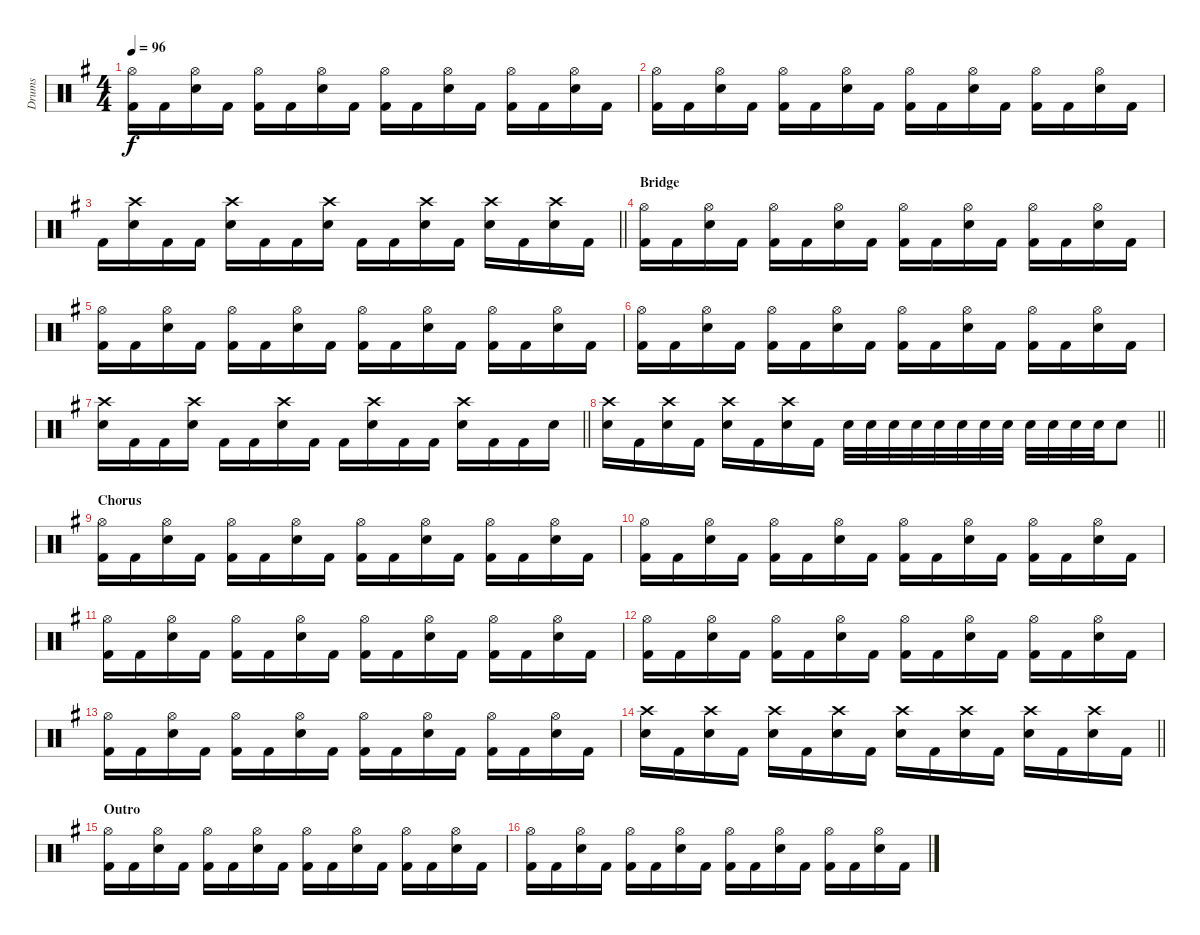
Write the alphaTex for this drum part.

\track ("Drums" "Drums") {instrument percussion}
\staff {score}
\articulation defaults
\ts (4 4)
\tempo 96
\clef neutral
\ks g
("Hi-Hat (open)" "Kick (hit) 2").16{dy f} "Kick (hit) 2".16 ("Hi-Hat (open)" "Electric Snare (hit)").16 "Kick (hit) 2".16 ("Hi-Hat (open)" "Kick (hit) 2").16 "Kick (hit) 2".16 ("Hi-Hat (open)" "Electric Snare (hit)").16 "Kick (hit) 2".16 ("Hi-Hat (open)" "Kick (hit) 2").16 "Kick (hit) 2".16 ("Hi-Hat (open)" "Electric Snare (hit)").16 "Kick (hit) 2".16 ("Hi-Hat (open)" "Kick (hit) 2").16 "Kick (hit) 2".16 ("Hi-Hat (open)" "Electric Snare (hit)").16 "Kick (hit) 2".16 |
("Hi-Hat (open)" "Kick (hit) 2").16 "Kick (hit) 2".16 ("Hi-Hat (open)" "Electric Snare (hit)").16 "Kick (hit) 2".16 ("Hi-Hat (open)" "Kick (hit) 2").16 "Kick (hit) 2".16 ("Hi-Hat (open)" "Electric Snare (hit)").16 "Kick (hit) 2".16 ("Hi-Hat (open)" "Kick (hit) 2").16 "Kick (hit) 2".16 ("Hi-Hat (open)" "Electric Snare (hit)").16 "Kick (hit) 2".16 ("Hi-Hat (open)" "Kick (hit) 2").16 "Kick (hit) 2".16 ("Hi-Hat (open)" "Electric Snare (hit)").16 "Kick (hit) 2".16 |
\barLineRight lightlight "Kick (hit) 2".16
("Crash high (hit)" "Electric Snare (hit)").16 "Kick (hit) 2".16 "Kick (hit) 2".16 ("Crash high (hit)" "Electric Snare (hit)").16 "Kick (hit) 2".16 "Kick (hit) 2".16 ("Crash high (hit)" "Electric Snare (hit)").16 "Kick (hit) 2".16 "Kick (hit) 2".16 ("Crash high (hit)" "Electric Snare (hit)").16 "Kick (hit) 2".16 ("Crash high (hit)" "Electric Snare (hit)").16 "Kick (hit) 2".16 ("Crash high (hit)" "Electric Snare (hit)").16 "Kick (hit) 2".16 |
\section ("" "Bridge")
("Hi-Hat (open)" "Kick (hit) 2").16 "Kick (hit) 2".16 ("Hi-Hat (open)" "Electric Snare (hit)").16 "Kick (hit) 2".16 ("Hi-Hat (open)" "Kick (hit) 2").16 "Kick (hit) 2".16 ("Hi-Hat (open)" "Electric Snare (hit)").16 "Kick (hit) 2".16 ("Hi-Hat (open)" "Kick (hit) 2").16 "Kick (hit) 2".16 ("Hi-Hat (open)" "Electric Snare (hit)").16 "Kick (hit) 2".16 ("Hi-Hat (open)" "Kick (hit) 2").16 "Kick (hit) 2".16 ("Hi-Hat (open)" "Electric Snare (hit)").16 "Kick (hit) 2".16 |
("Hi-Hat (open)" "Kick (hit) 2").16 "Kick (hit) 2".16 ("Hi-Hat (open)" "Electric Snare (hit)").16 "Kick (hit) 2".16 ("Hi-Hat (open)" "Kick (hit) 2").16 "Kick (hit) 2".16 ("Hi-Hat (open)" "Electric Snare (hit)").16 "Kick (hit) 2".16 ("Hi-Hat (open)" "Kick (hit) 2").16 "Kick (hit) 2".16 ("Hi-Hat (open)" "Electric Snare (hit)").16 "Kick (hit) 2".16 ("Hi-Hat (open)" "Kick (hit) 2").16 "Kick (hit) 2".16 ("Hi-Hat (open)" "Electric Snare (hit)").16 "Kick (hit) 2".16 |
("Hi-Hat (open)" "Kick (hit) 2").16 "Kick (hit) 2".16 ("Hi-Hat (open)" "Electric Snare (hit)").16 "Kick (hit) 2".16 ("Hi-Hat (open)" "Kick (hit) 2").16 "Kick (hit) 2".16 ("Hi-Hat (open)" "Electric Snare (hit)").16 "Kick (hit) 2".16 ("Hi-Hat (open)" "Kick (hit) 2").16 "Kick (hit) 2".16 ("Hi-Hat (open)" "Electric Snare (hit)").16 "Kick (hit) 2".16 ("Hi-Hat (open)" "Kick (hit) 2").16 "Kick (hit) 2".16 ("Hi-Hat (open)" "Electric Snare (hit)").16 "Kick (hit) 2".16 |
\barLineRight lightlight
("Crash high (hit)" "Electric Snare (hit)").16 "Kick (hit) 2".16 "Kick (hit) 2".16 ("Crash high (hit)" "Electric Snare (hit)").16 "Kick (hit) 2".16 "Kick (hit) 2".16 ("Crash high (hit)" "Electric Snare (hit)").16 "Kick (hit) 2".16 "Kick (hit) 2".16 ("Crash high (hit)" "Electric Snare (hit)").16 "Kick (hit) 2".16 "Kick (hit) 2".16 ("Crash high (hit)" "Electric Snare (hit)").16 "Kick (hit) 2".16 "Kick (hit) 2".16 "Electric Snare (hit)".16 |
\barLineRight lightlight
("Crash high (hit)" "Electric Snare (hit)").16 "Kick (hit) 2".16 ("Crash high (hit)" "Electric Snare (hit)").16 "Kick (hit) 2".16 ("Crash high (hit)" "Electric Snare (hit)").16 "Kick (hit) 2".16 ("Crash high (hit)" "Electric Snare (hit)").16 "Kick (hit) 2".16 "Electric Snare (hit)".32 "Electric Snare (hit)".32 "Electric Snare (hit)".32 "Electric Snare (hit)".32 "Electric Snare (hit)".32 "Electric Snare (hit)".32 "Electric Snare (hit)".32 "Electric Snare (hit)".32 "Electric Snare (hit)".32 "Electric Snare (hit)".32 "Electric Snare (hit)".32 "Electric Snare (hit)".32 "Electric Snare (hit)".8 |
\section ("" "Chorus")
("Hi-Hat (open)" "Kick (hit) 2").16 "Kick (hit) 2".16 ("Hi-Hat (open)" "Electric Snare (hit)").16 "Kick (hit) 2".16 ("Hi-Hat (open)" "Kick (hit) 2").16 "Kick (hit) 2".16 ("Hi-Hat (open)" "Electric Snare (hit)").16 "Kick (hit) 2".16 ("Hi-Hat (open)" "Kick (hit) 2").16 "Kick (hit) 2".16 ("Hi-Hat (open)" "Electric Snare (hit)").16 "Kick (hit) 2".16 ("Hi-Hat (open)" "Kick (hit) 2").16 "Kick (hit) 2".16 ("Hi-Hat (open)" "Electric Snare (hit)").16 "Kick (hit) 2".16 |
("Hi-Hat (open)" "Kick (hit) 2").16 "Kick (hit) 2".16 ("Hi-Hat (open)" "Electric Snare (hit)").16 "Kick (hit) 2".16 ("Hi-Hat (open)" "Kick (hit) 2").16 "Kick (hit) 2".16 ("Hi-Hat (open)" "Electric Snare (hit)").16 "Kick (hit) 2".16 ("Hi-Hat (open)" "Kick (hit) 2").16 "Kick (hit) 2".16 ("Hi-Hat (open)" "Electric Snare (hit)").16 "Kick (hit) 2".16 ("Hi-Hat (open)" "Kick (hit) 2").16 "Kick (hit) 2".16 ("Hi-Hat (open)" "Electric Snare (hit)").16 "Kick (hit) 2".16 |
("Hi-Hat (open)" "Kick (hit) 2").16 "Kick (hit) 2".16 ("Hi-Hat (open)" "Electric Snare (hit)").16 "Kick (hit) 2".16 ("Hi-Hat (open)" "Kick (hit) 2").16 "Kick (hit) 2".16 ("Hi-Hat (open)" "Electric Snare (hit)").16 "Kick (hit) 2".16 ("Hi-Hat (open)" "Kick (hit) 2").16 "Kick (hit) 2".16 ("Hi-Hat (open)" "Electric Snare (hit)").16 "Kick (hit) 2".16 ("Hi-Hat (open)" "Kick (hit) 2").16 "Kick (hit) 2".16 ("Hi-Hat (open)" "Electric Snare (hit)").16 "Kick (hit) 2".16 |
("Hi-Hat (open)" "Kick (hit) 2").16 "Kick (hit) 2".16 ("Hi-Hat (open)" "Electric Snare (hit)").16 "Kick (hit) 2".16 ("Hi-Hat (open)" "Kick (hit) 2").16 "Kick (hit) 2".16 ("Hi-Hat (open)" "Electric Snare (hit)").16 "Kick (hit) 2".16 ("Hi-Hat (open)" "Kick (hit) 2").16 "Kick (hit) 2".16 ("Hi-Hat (open)" "Electric Snare (hit)").16 "Kick (hit) 2".16 ("Hi-Hat (open)" "Kick (hit) 2").16 "Kick (hit) 2".16 ("Hi-Hat (open)" "Electric Snare (hit)").16 "Kick (hit) 2".16 |
("Hi-Hat (open)" "Kick (hit) 2").16 "Kick (hit) 2".16 ("Hi-Hat (open)" "Electric Snare (hit)").16 "Kick (hit) 2".16 ("Hi-Hat (open)" "Kick (hit) 2").16 "Kick (hit) 2".16 ("Hi-Hat (open)" "Electric Snare (hit)").16 "Kick (hit) 2".16 ("Hi-Hat (open)" "Kick (hit) 2").16 "Kick (hit) 2".16 ("Hi-Hat (open)" "Electric Snare (hit)").16 "Kick (hit) 2".16 ("Hi-Hat (open)" "Kick (hit) 2").16 "Kick (hit) 2".16 ("Hi-Hat (open)" "Electric Snare (hit)").16 "Kick (hit) 2".16 |
\barLineRight lightlight
("Crash high (hit)" "Electric Snare (hit)").16 "Kick (hit) 2".16 ("Crash high (hit)" "Electric Snare (hit)").16 "Kick (hit) 2".16 ("Crash high (hit)" "Electric Snare (hit)").16 "Kick (hit) 2".16 ("Crash high (hit)" "Electric Snare (hit)").16 "Kick (hit) 2".16 ("Crash high (hit)" "Electric Snare (hit)").16 "Kick (hit) 2".16 ("Crash high (hit)" "Electric Snare (hit)").16 "Kick (hit) 2".16 ("Crash high (hit)" "Electric Snare (hit)").16 "Kick (hit) 2".16 ("Crash high (hit)" "Electric Snare (hit)").16 "Kick (hit) 2".16 |
\section ("" "Outro")
("Hi-Hat (open)" "Kick (hit) 2").16 "Kick (hit) 2".16 ("Hi-Hat (open)" "Electric Snare (hit)").16 "Kick (hit) 2".16 ("Hi-Hat (open)" "Kick (hit) 2").16 "Kick (hit) 2".16 ("Hi-Hat (open)" "Electric Snare (hit)").16 "Kick (hit) 2".16 ("Hi-Hat (open)" "Kick (hit) 2").16 "Kick (hit) 2".16 ("Hi-Hat (open)" "Electric Snare (hit)").16 "Kick (hit) 2".16 ("Hi-Hat (open)" "Kick (hit) 2").16 "Kick (hit) 2".16 ("Hi-Hat (open)" "Electric Snare (hit)").16 "Kick (hit) 2".16 |
("Hi-Hat (open)" "Kick (hit) 2").16 "Kick (hit) 2".16 ("Hi-Hat (open)" "Electric Snare (hit)").16 "Kick (hit) 2".16 ("Hi-Hat (open)" "Kick (hit) 2").16 "Kick (hit) 2".16 ("Hi-Hat (open)" "Electric Snare (hit)").16 "Kick (hit) 2".16 ("Hi-Hat (open)" "Kick (hit) 2").16 "Kick (hit) 2".16 ("Hi-Hat (open)" "Electric Snare (hit)").16 "Kick (hit) 2".16 ("Hi-Hat (open)" "Kick (hit) 2").16 "Kick (hit) 2".16 ("Hi-Hat (open)" "Electric Snare (hit)").16 "Kick (hit) 2".16
